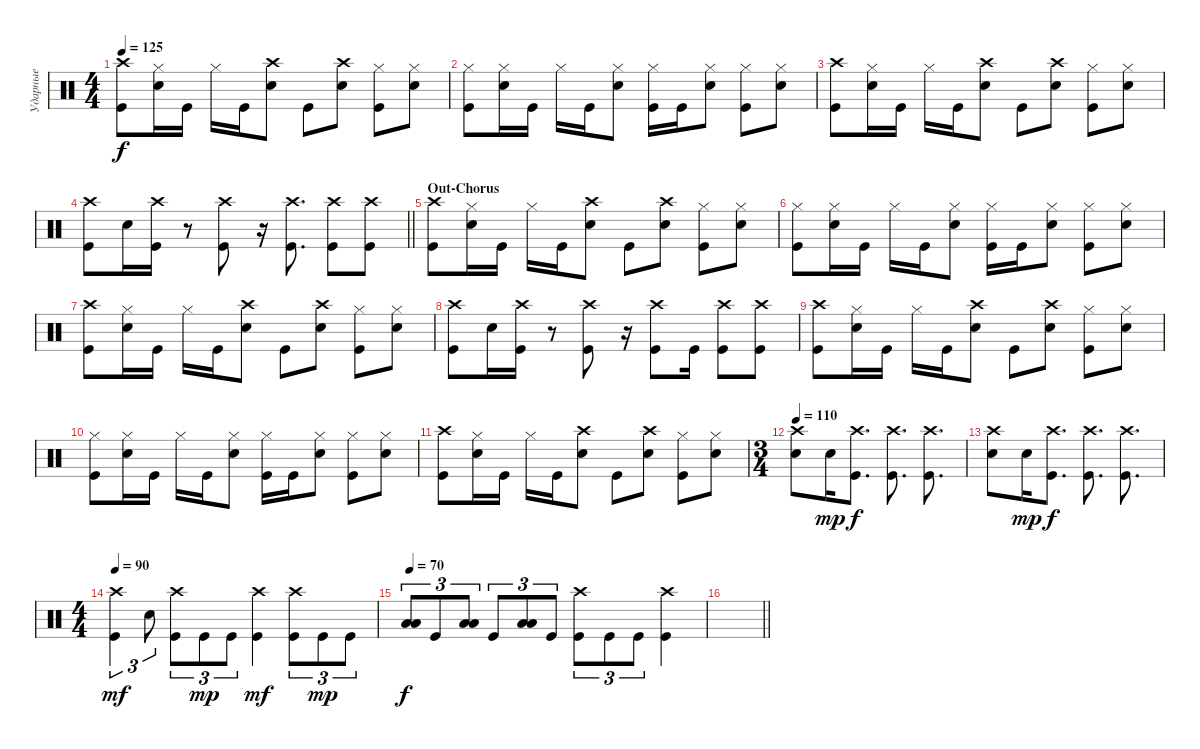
\track ("Ударные" "Ударные") {instrument percussion}
\staff {score}
\articulation defaults
\ts (4 4)
\tempo 125
\clef neutral
\ks aminor
("Kick (hit)" "Crash high (hit)").8{dy f} ("Snare (hit) 2" "Hi-Hat (closed)").16 "Kick (hit)".16 "Hi-Hat (closed)".16 "Kick (hit)".16 ("Snare (hit) 2" "Crash high (hit)").8 "Kick (hit)".8 ("Snare (hit) 2" "Crash high (hit)").8 ("Kick (hit)" "Hi-Hat (closed)").8 ("Snare (hit) 2" "Hi-Hat (closed)").8 |
("Kick (hit)" "Hi-Hat (closed)").8 ("Snare (hit) 2" "Hi-Hat (closed)").16 "Kick (hit)".16 "Hi-Hat (closed)".16 "Kick (hit)".16 ("Snare (hit) 2" "Hi-Hat (closed)").8 ("Kick (hit)" "Hi-Hat (closed)").16 "Kick (hit)".16 ("Snare (hit) 2" "Hi-Hat (closed)").8 ("Kick (hit)" "Hi-Hat (closed)").8 ("Snare (hit) 2" "Hi-Hat (closed)").8 |
("Kick (hit)" "Crash high (hit)").8 ("Snare (hit) 2" "Hi-Hat (closed)").16 "Kick (hit)".16 "Hi-Hat (closed)".16 "Kick (hit)".16 ("Snare (hit) 2" "Crash high (hit)").8 "Kick (hit)".8 ("Snare (hit) 2" "Crash high (hit)").8 ("Kick (hit)" "Hi-Hat (closed)").8 ("Snare (hit) 2" "Hi-Hat (closed)").8 |
\barLineRight lightlight
("Kick (hit)" "Crash high (hit)").8 "Snare (hit) 2".16 ("Kick (hit)" "Crash high (hit)").16 r.8 ("Kick (hit)" "Crash high (hit)").8 r.16 ("Kick (hit)" "Crash high (hit)").8{d} ("Kick (hit)" "Crash high (hit)").8 ("Kick (hit)" "Crash high (hit)").8 |
\section ("" "Out-Chorus")
("Kick (hit)" "Crash high (hit)").8 ("Snare (hit) 2" "Hi-Hat (closed)").16 "Kick (hit)".16 "Hi-Hat (closed)".16 "Kick (hit)".16 ("Snare (hit) 2" "Crash high (hit)").8 "Kick (hit)".8 ("Snare (hit) 2" "Crash high (hit)").8 ("Kick (hit)" "Hi-Hat (closed)").8 ("Snare (hit) 2" "Hi-Hat (closed)").8 |
("Kick (hit)" "Hi-Hat (closed)").8 ("Snare (hit) 2" "Hi-Hat (closed)").16 "Kick (hit)".16 "Hi-Hat (closed)".16 "Kick (hit)".16 ("Snare (hit) 2" "Hi-Hat (closed)").8 ("Kick (hit)" "Hi-Hat (closed)").16 "Kick (hit)".16 ("Snare (hit) 2" "Hi-Hat (closed)").8 ("Kick (hit)" "Hi-Hat (closed)").8 ("Snare (hit) 2" "Hi-Hat (closed)").8 |
("Kick (hit)" "Crash high (hit)").8 ("Snare (hit) 2" "Hi-Hat (closed)").16 "Kick (hit)".16 "Hi-Hat (closed)".16 "Kick (hit)".16 ("Snare (hit) 2" "Crash high (hit)").8 "Kick (hit)".8 ("Snare (hit) 2" "Crash high (hit)").8 ("Kick (hit)" "Hi-Hat (closed)").8 ("Snare (hit) 2" "Hi-Hat (closed)").8 |
("Kick (hit)" "Crash high (hit)").8 "Snare (hit) 2".16 ("Kick (hit)" "Crash high (hit)").16 r.8 ("Kick (hit)" "Crash high (hit)").8 r.16 ("Kick (hit)" "Crash high (hit)").8 "Kick (hit)".16 ("Kick (hit)" "Crash high (hit)").8 ("Kick (hit)" "Crash high (hit)").8 |
("Kick (hit)" "Crash high (hit)").8 ("Snare (hit) 2" "Hi-Hat (closed)").16 "Kick (hit)".16 "Hi-Hat (closed)".16 "Kick (hit)".16 ("Snare (hit) 2" "Crash high (hit)").8 "Kick (hit)".8 ("Snare (hit) 2" "Crash high (hit)").8 ("Kick (hit)" "Hi-Hat (closed)").8 ("Snare (hit) 2" "Hi-Hat (closed)").8 |
("Kick (hit)" "Hi-Hat (closed)").8 ("Snare (hit) 2" "Hi-Hat (closed)").16 "Kick (hit)".16 "Hi-Hat (closed)".16 "Kick (hit)".16 ("Snare (hit) 2" "Hi-Hat (closed)").8 ("Kick (hit)" "Hi-Hat (closed)").16 "Kick (hit)".16 ("Snare (hit) 2" "Hi-Hat (closed)").8 ("Kick (hit)" "Hi-Hat (closed)").8 ("Snare (hit) 2" "Hi-Hat (closed)").8 |
("Kick (hit)" "Crash high (hit)").8 ("Snare (hit) 2" "Hi-Hat (closed)").16 "Kick (hit)".16 "Hi-Hat (closed)".16 "Kick (hit)".16 ("Snare (hit) 2" "Crash high (hit)").8 "Kick (hit)".8 ("Snare (hit) 2" "Crash high (hit)").8 ("Kick (hit)" "Hi-Hat (closed)").8 ("Snare (hit) 2" "Hi-Hat (closed)").8 |
\ts (3 4)
\tempo 110
("Snare (hit) 2" "Crash high (hit)").8 "Snare (hit) 2".16{dy mp} ("Kick (hit)" "Crash high (hit)").8{d dy f} ("Kick (hit)" "Crash high (hit)").8{d} ("Kick (hit)" "Crash high (hit)").8{d} |
("Snare (hit) 2" "Crash high (hit)").8 "Snare (hit) 2".16{dy mp} ("Kick (hit)" "Crash high (hit)").8{d dy f} ("Kick (hit)" "Crash high (hit)").8{d} ("Kick (hit)" "Crash high (hit)").8{d} |
\ts (4 4)
\tempo 90
("Kick (hit)" "Crash high (hit)").4{tu (3 2) dy mf} "Snare (hit) 2".8{tu (3 2)} ("Kick (hit)" "Crash high (hit)").8{tu (3 2)} "Kick (hit)".8{tu (3 2) dy mp} "Kick (hit)".8{tu (3 2)} ("Kick (hit)" "Crash high (hit)").4{dy mf} ("Kick (hit)" "Crash high (hit)").8{tu (3 2)} "Kick (hit)".8{tu (3 2) dy mp} "Kick (hit)".8{tu (3 2)} |
\tempo 70
("Low Tom (hit)" "Low Tom (hit)").8{tu (3 2) bd 240 dy f} "Kick (hit)".8{tu (3 2)} ("Low Tom (hit)" "Low Tom (hit)").8{tu (3 2) bd 240} "Kick (hit)".8{tu (3 2)} ("Low Tom (hit)" "Low Tom (hit)").8{tu (3 2) bd 240} "Kick (hit)".8{tu (3 2)} ("Kick (hit)" "Crash high (hit)").8{tu (3 2)} "Kick (hit)".8{tu (3 2)} "Kick (hit)".8{tu (3 2)} ("Kick (hit)" "Crash high (hit)").4 |
\barLineRight lightlight
